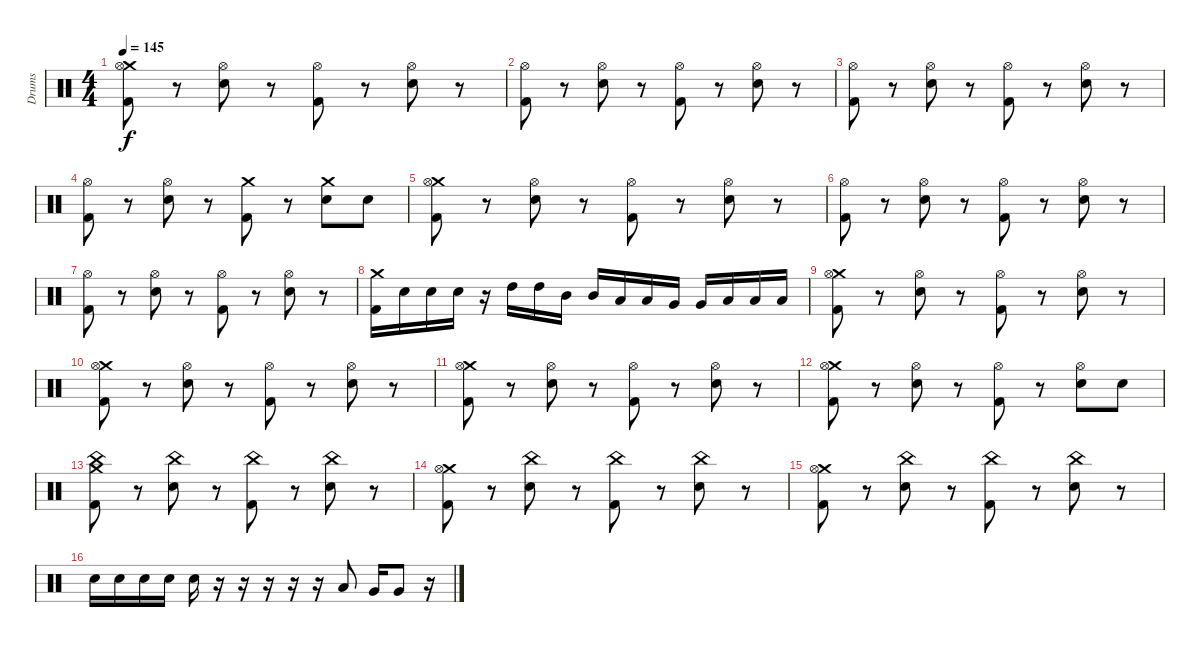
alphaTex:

\track ("Drums" "Drums") {instrument percussion}
\staff {score}
\articulation defaults
\ts (4 4)
\tempo 145
\clef neutral
\ks c
("Crash medium (hit)" "Hi-Hat (open)" "Kick (hit) 2").8{dy f} r.8 ("Hi-Hat (open)" "Electric Snare (hit)").8 r.8 ("Hi-Hat (open)" "Kick (hit) 2").8 r.8 ("Hi-Hat (open)" "Electric Snare (hit)").8 r.8 |
("Hi-Hat (open)" "Kick (hit) 2").8 r.8 ("Hi-Hat (open)" "Electric Snare (hit)").8 r.8 ("Hi-Hat (open)" "Kick (hit) 2").8 r.8 ("Hi-Hat (open)" "Electric Snare (hit)").8 r.8 |
("Hi-Hat (open)" "Kick (hit) 2").8 r.8 ("Hi-Hat (open)" "Electric Snare (hit)").8 r.8 ("Hi-Hat (open)" "Kick (hit) 2").8 r.8 ("Hi-Hat (open)" "Electric Snare (hit)").8 r.8 |
("Hi-Hat (open)" "Kick (hit) 2").8 r.8 ("Hi-Hat (open)" "Electric Snare (hit)").8 r.8 ("Crash medium (hit)" "Kick (hit) 2").8 r.8 ("Crash medium (hit)" "Electric Snare (hit)").8 "Electric Snare (hit)".8 |
("Crash medium (hit)" "Hi-Hat (open)" "Kick (hit) 2").8 r.8 ("Hi-Hat (open)" "Electric Snare (hit)").8 r.8 ("Hi-Hat (open)" "Kick (hit) 2").8 r.8 ("Hi-Hat (open)" "Electric Snare (hit)").8 r.8 |
("Hi-Hat (open)" "Kick (hit) 2").8 r.8 ("Hi-Hat (open)" "Electric Snare (hit)").8 r.8 ("Hi-Hat (open)" "Kick (hit) 2").8 r.8 ("Hi-Hat (open)" "Electric Snare (hit)").8 r.8 |
("Hi-Hat (open)" "Kick (hit) 2").8 r.8 ("Hi-Hat (open)" "Electric Snare (hit)").8 r.8 ("Hi-Hat (open)" "Kick (hit) 2").8 r.8 ("Hi-Hat (open)" "Electric Snare (hit)").8 r.8 |
("Crash medium (hit)" "Kick (hit) 2").16 "Electric Snare (hit)".16 "Electric Snare (hit)".16 "Electric Snare (hit)".16 r.16 "High Tom (hit)".16 "High Tom (hit)".16 "Mid Tom (hit)".16 "Mid Tom (hit)".16 "Low Tom (hit)".16 "Low Tom (hit)".16 "Very Low Tom (hit)".16 "Very Low Tom (hit)".16 "Low Floor Tom (hit)".16 "Low Floor Tom (hit)".16 "Low Floor Tom (hit)".16 |
("Crash medium (hit)" "Hi-Hat (open)" "Kick (hit) 2").8 r.8 ("Hi-Hat (open)" "Electric Snare (hit)").8 r.8 ("Hi-Hat (open)" "Kick (hit) 2").8 r.8 ("Hi-Hat (open)" "Electric Snare (hit)").8 r.8 |
("Crash medium (hit)" "Hi-Hat (open)" "Kick (hit) 2").8 r.8 ("Hi-Hat (open)" "Electric Snare (hit)").8 r.8 ("Hi-Hat (open)" "Kick (hit) 2").8 r.8 ("Hi-Hat (open)" "Electric Snare (hit)").8 r.8 |
("Crash medium (hit)" "Hi-Hat (open)" "Kick (hit) 2").8 r.8 ("Hi-Hat (open)" "Electric Snare (hit)").8 r.8 ("Hi-Hat (open)" "Kick (hit) 2").8 r.8 ("Hi-Hat (open)" "Electric Snare (hit)").8 r.8 |
("Crash medium (hit)" "Hi-Hat (open)" "Kick (hit) 2").8 r.8 ("Hi-Hat (open)" "Electric Snare (hit)").8 r.8 ("Hi-Hat (open)" "Kick (hit) 2").8 r.8 ("Hi-Hat (open)" "Electric Snare (hit)").8 "Electric Snare (hit)".8 |
("Crash medium (hit)" "China (hit)" "Kick (hit) 2").8 r.8 ("China (hit)" "Electric Snare (hit)").8 r.8 ("China (hit)" "Kick (hit) 2").8 r.8 ("China (hit)" "Electric Snare (hit)").8 r.8 |
("Crash medium (hit)" "Hi-Hat (open)" "Kick (hit) 2").8 r.8 ("China (hit)" "Electric Snare (hit)").8 r.8 ("China (hit)" "Kick (hit) 2").8 r.8 ("China (hit)" "Electric Snare (hit)").8 r.8 |
("Crash medium (hit)" "Hi-Hat (open)" "Kick (hit) 2").8 r.8 ("China (hit)" "Electric Snare (hit)").8 r.8 ("China (hit)" "Kick (hit) 2").8 r.8 ("China (hit)" "Electric Snare (hit)").8 r.8 |
"Electric Snare (hit)".16 "Electric Snare (hit)".16 "Electric Snare (hit)".16 "Electric Snare (hit)".16 "Electric Snare (hit)".16 r.16 r.16 r.16 r.16 r.16 "Low Tom (hit)".8 "Very Low Tom (hit)".16 "Very Low Tom (hit)".8 r.16
